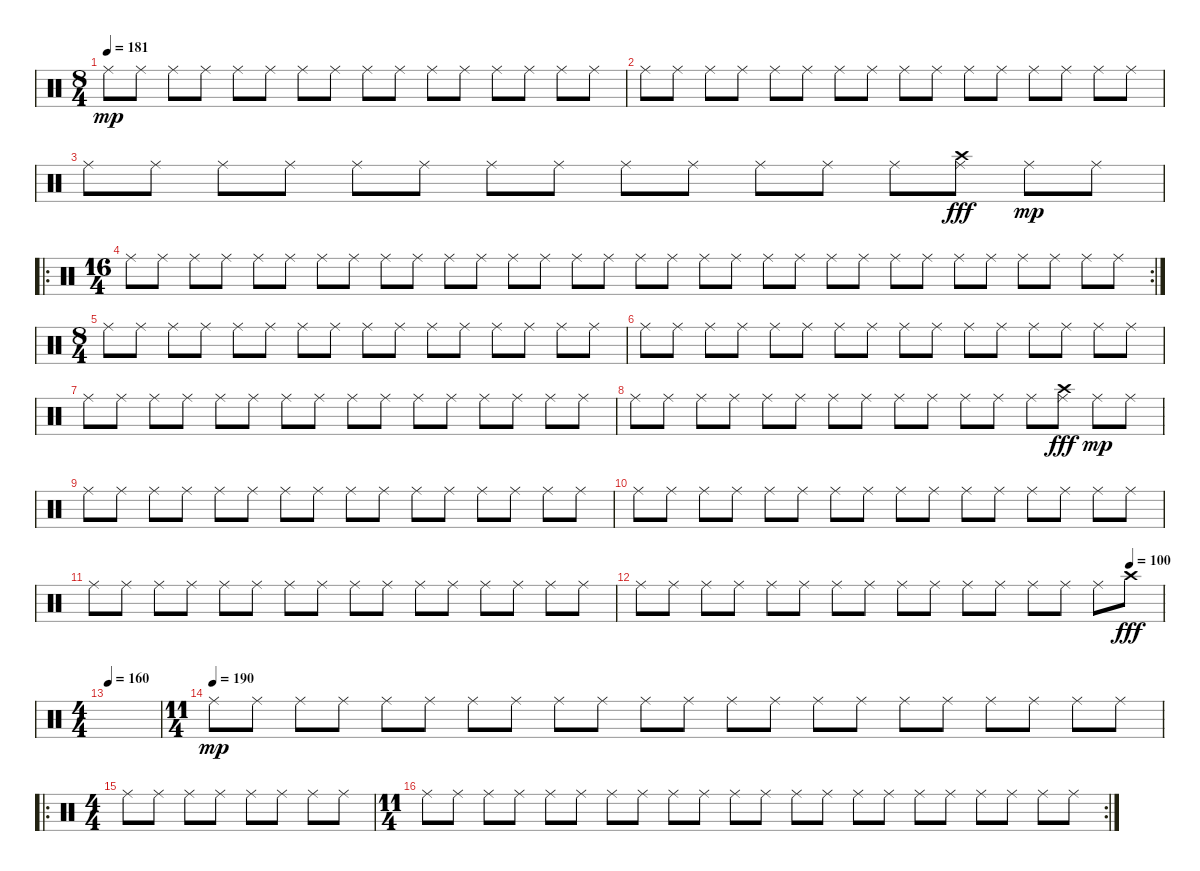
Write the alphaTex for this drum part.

\track "" {instrument percussion}
\staff {score}
\articulation defaults
\ts (8 4)
\tempo 181
\clef neutral
\ks c "Ride (middle)".8{dy mp} "Ride (middle)".8 "Ride (middle)".8 "Ride (middle)".8 "Ride (middle)".8 "Ride (middle)".8 "Ride (middle)".8 "Ride (middle)".8 "Ride (middle)".8 "Ride (middle)".8 "Ride (middle)".8 "Ride (middle)".8 "Ride (middle)".8 "Ride (middle)".8 "Ride (middle)".8 "Ride (middle)".8
|
"Ride (middle)".8 "Ride (middle)".8 "Ride (middle)".8 "Ride (middle)".8 "Ride (middle)".8 "Ride (middle)".8 "Ride (middle)".8 "Ride (middle)".8 "Ride (middle)".8 "Ride (middle)".8 "Ride (middle)".8 "Ride (middle)".8 "Ride (middle)".8 "Ride (middle)".8 "Ride (middle)".8 "Ride (middle)".8 |
"Ride (middle)".8 "Ride (middle)".8 "Ride (middle)".8 "Ride (middle)".8 "Ride (middle)".8 "Ride (middle)".8 "Ride (middle)".8 "Ride (middle)".8 "Ride (middle)".8 "Ride (middle)".8 "Ride (middle)".8 "Ride (middle)".8 "Ride (middle)".8 ("Ride (middle)" "Crash high (hit)").8{dy fff} "Ride (middle)".8{dy mp} "Ride (middle)".8 |
\ro
\rc 2
\ts (16 4)
"Ride (middle)".8 "Ride (middle)".8 "Ride (middle)".8 "Ride (middle)".8 "Ride (middle)".8 "Ride (middle)".8 "Ride (middle)".8 "Ride (middle)".8 "Ride (middle)".8 "Ride (middle)".8 "Ride (middle)".8 "Ride (middle)".8 "Ride (middle)".8 "Ride (middle)".8 "Ride (middle)".8 "Ride (middle)".8 "Ride (middle)".8 "Ride (middle)".8 "Ride (middle)".8 "Ride (middle)".8 "Ride (middle)".8 "Ride (middle)".8 "Ride (middle)".8 "Ride (middle)".8 "Ride (middle)".8 "Ride (middle)".8 "Ride (middle)".8 "Ride (middle)".8 "Ride (middle)".8 "Ride (middle)".8 "Ride (middle)".8 "Ride (middle)".8 |
\ts (8 4)
"Ride (middle)".8 "Ride (middle)".8 "Ride (middle)".8 "Ride (middle)".8 "Ride (middle)".8 "Ride (middle)".8 "Ride (middle)".8 "Ride (middle)".8 "Ride (middle)".8 "Ride (middle)".8 "Ride (middle)".8 "Ride (middle)".8 "Ride (middle)".8 "Ride (middle)".8 "Ride (middle)".8 "Ride (middle)".8 |
"Ride (middle)".8 "Ride (middle)".8 "Ride (middle)".8 "Ride (middle)".8 "Ride (middle)".8 "Ride (middle)".8 "Ride (middle)".8 "Ride (middle)".8 "Ride (middle)".8 "Ride (middle)".8 "Ride (middle)".8 "Ride (middle)".8 "Ride (middle)".8 "Ride (middle)".8 "Ride (middle)".8 "Ride (middle)".8 |
"Ride (middle)".8 "Ride (middle)".8 "Ride (middle)".8 "Ride (middle)".8 "Ride (middle)".8 "Ride (middle)".8 "Ride (middle)".8 "Ride (middle)".8 "Ride (middle)".8 "Ride (middle)".8 "Ride (middle)".8 "Ride (middle)".8 "Ride (middle)".8 "Ride (middle)".8 "Ride (middle)".8 "Ride (middle)".8 |
"Ride (middle)".8 "Ride (middle)".8 "Ride (middle)".8 "Ride (middle)".8 "Ride (middle)".8 "Ride (middle)".8 "Ride (middle)".8 "Ride (middle)".8 "Ride (middle)".8 "Ride (middle)".8 "Ride (middle)".8 "Ride (middle)".8 "Ride (middle)".8 ("Ride (middle)" "Crash high (hit)").8{dy fff} "Ride (middle)".8{dy mp} "Ride (middle)".8 |
"Ride (middle)".8 "Ride (middle)".8 "Ride (middle)".8 "Ride (middle)".8 "Ride (middle)".8 "Ride (middle)".8 "Ride (middle)".8 "Ride (middle)".8 "Ride (middle)".8 "Ride (middle)".8 "Ride (middle)".8 "Ride (middle)".8 "Ride (middle)".8 "Ride (middle)".8 "Ride (middle)".8 "Ride (middle)".8 |
"Ride (middle)".8 "Ride (middle)".8 "Ride (middle)".8 "Ride (middle)".8 "Ride (middle)".8 "Ride (middle)".8 "Ride (middle)".8 "Ride (middle)".8 "Ride (middle)".8 "Ride (middle)".8 "Ride (middle)".8 "Ride (middle)".8 "Ride (middle)".8 "Ride (middle)".8 "Ride (middle)".8 "Ride (middle)".8 |
"Ride (middle)".8 "Ride (middle)".8 "Ride (middle)".8 "Ride (middle)".8 "Ride (middle)".8 "Ride (middle)".8 "Ride (middle)".8 "Ride (middle)".8 "Ride (middle)".8 "Ride (middle)".8 "Ride (middle)".8 "Ride (middle)".8 "Ride (middle)".8 "Ride (middle)".8 "Ride (middle)".8 "Ride (middle)".8 |
\tempo (100 0.9375)
"Ride (middle)".8 "Ride (middle)".8 "Ride (middle)".8 "Ride (middle)".8 "Ride (middle)".8 "Ride (middle)".8 "Ride (middle)".8 "Ride (middle)".8 "Ride (middle)".8 "Ride (middle)".8 "Ride (middle)".8 "Ride (middle)".8 "Ride (middle)".8 "Ride (middle)".8 "Ride (middle)".8 "Crash high (hit)".8{dy fff} |
\ts (4 4)
\tempo 160
|
\ts (11 4)
\tempo 181
\tempo (190)
"Ride (middle)".8{dy mp} "Ride (middle)".8 "Ride (middle)".8 "Ride (middle)".8 "Ride (middle)".8 "Ride (middle)".8 "Ride (middle)".8 "Ride (middle)".8 "Ride (middle)".8 "Ride (middle)".8 "Ride (middle)".8 "Ride (middle)".8 "Ride (middle)".8 "Ride (middle)".8 "Ride (middle)".8 "Ride (middle)".8 "Ride (middle)".8 "Ride (middle)".8 "Ride (middle)".8 "Ride (middle)".8 "Ride (middle)".8 "Ride (middle)".8 |
\ro
\ts (4 4)
"Ride (middle)".8 "Ride (middle)".8 "Ride (middle)".8 "Ride (middle)".8 "Ride (middle)".8 "Ride (middle)".8 "Ride (middle)".8 "Ride (middle)".8 |
\rc 2
\ts (11 4)
"Ride (middle)".8 "Ride (middle)".8 "Ride (middle)".8 "Ride (middle)".8 "Ride (middle)".8 "Ride (middle)".8 "Ride (middle)".8 "Ride (middle)".8 "Ride (middle)".8 "Ride (middle)".8 "Ride (middle)".8 "Ride (middle)".8 "Ride (middle)".8 "Ride (middle)".8 "Ride (middle)".8 "Ride (middle)".8 "Ride (middle)".8 "Ride (middle)".8 "Ride (middle)".8 "Ride (middle)".8 "Ride (middle)".8 "Ride (middle)".8
